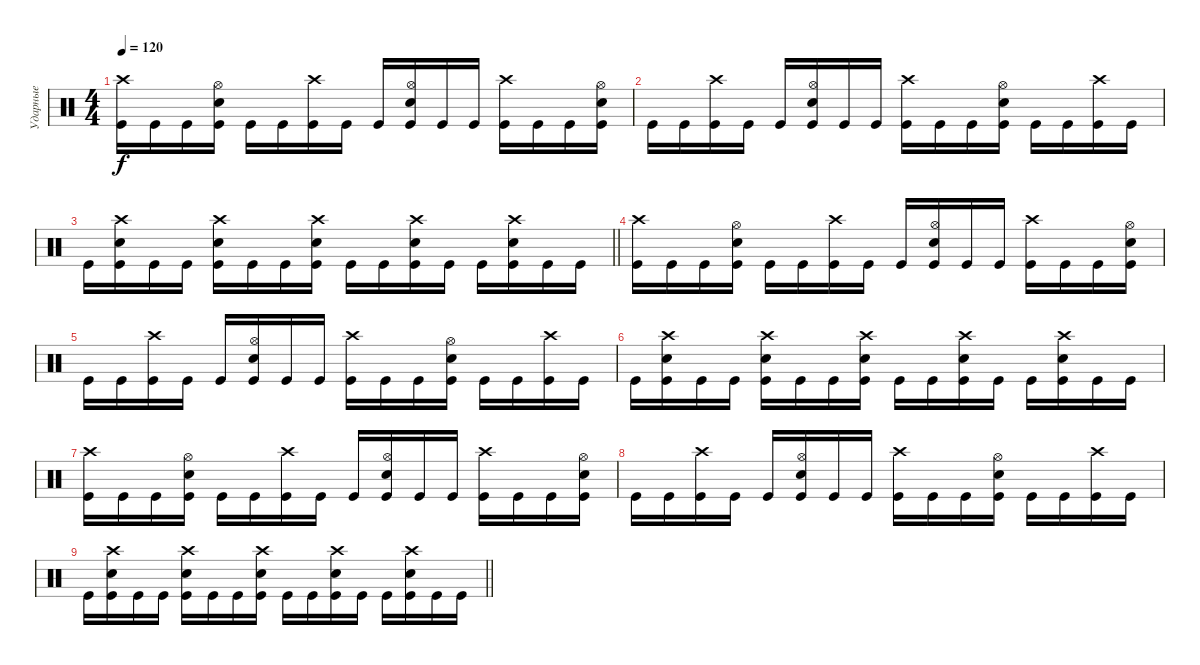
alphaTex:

\track ("Ударные" "Ударные") {instrument percussion}
\staff {score}
\articulation defaults
\ts (4 4)
\tempo 120
\clef neutral
\ks c
("Crash high (hit)" "Kick (hit)").16{dy f} "Kick (hit)".16 "Kick (hit)".16 ("Hi-Hat (open)" "Kick (hit)" "Electric Snare (hit)").16 "Kick (hit)".16 "Kick (hit)".16 ("Crash high (hit)" "Kick (hit)").16 "Kick (hit)".16 "Kick (hit)".16 ("Hi-Hat (open)" "Kick (hit)" "Electric Snare (hit)").16 "Kick (hit)".16 "Kick (hit)".16 ("Crash high (hit)" "Kick (hit)").16 "Kick (hit)".16 "Kick (hit)".16 ("Hi-Hat (open)" "Kick (hit)" "Electric Snare (hit)").16 |
"Kick (hit)".16 "Kick (hit)".16 ("Crash high (hit)" "Kick (hit)").16 "Kick (hit)".16 "Kick (hit)".16 ("Hi-Hat (open)" "Kick (hit)" "Electric Snare (hit)").16 "Kick (hit)".16 "Kick (hit)".16 ("Crash high (hit)" "Kick (hit)").16 "Kick (hit)".16 "Kick (hit)".16 ("Electric Snare (hit)" "Kick (hit)" "Hi-Hat (open)").16 "Kick (hit)".16 "Kick (hit)".16 ("Crash high (hit)" "Kick (hit)").16 "Kick (hit)".16 |
\barLineRight lightlight "Kick (hit)".16
("Crash high (hit)" "Electric Snare (hit)" "Kick (hit)").16 "Kick (hit)".16 "Kick (hit)".16 ("Crash high (hit)" "Electric Snare (hit)" "Kick (hit)").16 "Kick (hit)".16 "Kick (hit)".16 ("Crash high (hit)" "Electric Snare (hit)" "Kick (hit)").16 "Kick (hit)".16 "Kick (hit)".16 ("Crash high (hit)" "Electric Snare (hit)" "Kick (hit)").16 "Kick (hit)".16 "Kick (hit)".16 ("Crash high (hit)" "Electric Snare (hit)" "Kick (hit)").16 "Kick (hit)".16 "Kick (hit)".16 |
("Crash high (hit)" "Kick (hit)").16 "Kick (hit)".16 "Kick (hit)".16 ("Hi-Hat (open)" "Kick (hit)" "Electric Snare (hit)").16 "Kick (hit)".16 "Kick (hit)".16 ("Crash high (hit)" "Kick (hit)").16 "Kick (hit)".16 "Kick (hit)".16 ("Hi-Hat (open)" "Kick (hit)" "Electric Snare (hit)").16 "Kick (hit)".16 "Kick (hit)".16 ("Crash high (hit)" "Kick (hit)").16 "Kick (hit)".16 "Kick (hit)".16 ("Hi-Hat (open)" "Kick (hit)" "Electric Snare (hit)").16 |
"Kick (hit)".16 "Kick (hit)".16 ("Crash high (hit)" "Kick (hit)").16 "Kick (hit)".16 "Kick (hit)".16 ("Hi-Hat (open)" "Kick (hit)" "Electric Snare (hit)").16 "Kick (hit)".16 "Kick (hit)".16 ("Crash high (hit)" "Kick (hit)").16 "Kick (hit)".16 "Kick (hit)".16 ("Electric Snare (hit)" "Kick (hit)" "Hi-Hat (open)").16 "Kick (hit)".16 "Kick (hit)".16 ("Crash high (hit)" "Kick (hit)").16 "Kick (hit)".16 |
"Kick (hit)".16 ("Crash high (hit)" "Electric Snare (hit)" "Kick (hit)").16 "Kick (hit)".16 "Kick (hit)".16 ("Crash high (hit)" "Electric Snare (hit)" "Kick (hit)").16 "Kick (hit)".16 "Kick (hit)".16 ("Crash high (hit)" "Electric Snare (hit)" "Kick (hit)").16 "Kick (hit)".16 "Kick (hit)".16 ("Crash high (hit)" "Electric Snare (hit)" "Kick (hit)").16 "Kick (hit)".16 "Kick (hit)".16 ("Crash high (hit)" "Electric Snare (hit)" "Kick (hit)").16 "Kick (hit)".16 "Kick (hit)".16 |
("Crash high (hit)" "Kick (hit)").16 "Kick (hit)".16 "Kick (hit)".16 ("Hi-Hat (open)" "Kick (hit)" "Electric Snare (hit)").16 "Kick (hit)".16 "Kick (hit)".16 ("Crash high (hit)" "Kick (hit)").16 "Kick (hit)".16 "Kick (hit)".16 ("Hi-Hat (open)" "Kick (hit)" "Electric Snare (hit)").16 "Kick (hit)".16 "Kick (hit)".16 ("Crash high (hit)" "Kick (hit)").16 "Kick (hit)".16 "Kick (hit)".16 ("Hi-Hat (open)" "Kick (hit)" "Electric Snare (hit)").16 |
"Kick (hit)".16 "Kick (hit)".16 ("Crash high (hit)" "Kick (hit)").16 "Kick (hit)".16 "Kick (hit)".16 ("Hi-Hat (open)" "Kick (hit)" "Electric Snare (hit)").16 "Kick (hit)".16 "Kick (hit)".16 ("Crash high (hit)" "Kick (hit)").16 "Kick (hit)".16 "Kick (hit)".16 ("Electric Snare (hit)" "Kick (hit)" "Hi-Hat (open)").16 "Kick (hit)".16 "Kick (hit)".16 ("Crash high (hit)" "Kick (hit)").16 "Kick (hit)".16 |
\barLineRight lightlight "Kick (hit)".16
("Crash high (hit)" "Electric Snare (hit)" "Kick (hit)").16 "Kick (hit)".16 "Kick (hit)".16 ("Crash high (hit)" "Electric Snare (hit)" "Kick (hit)").16 "Kick (hit)".16 "Kick (hit)".16 ("Crash high (hit)" "Electric Snare (hit)" "Kick (hit)").16 "Kick (hit)".16 "Kick (hit)".16 ("Crash high (hit)" "Electric Snare (hit)" "Kick (hit)").16 "Kick (hit)".16 "Kick (hit)".16 ("Crash high (hit)" "Electric Snare (hit)" "Kick (hit)").16 "Kick (hit)".16 "Kick (hit)".16
